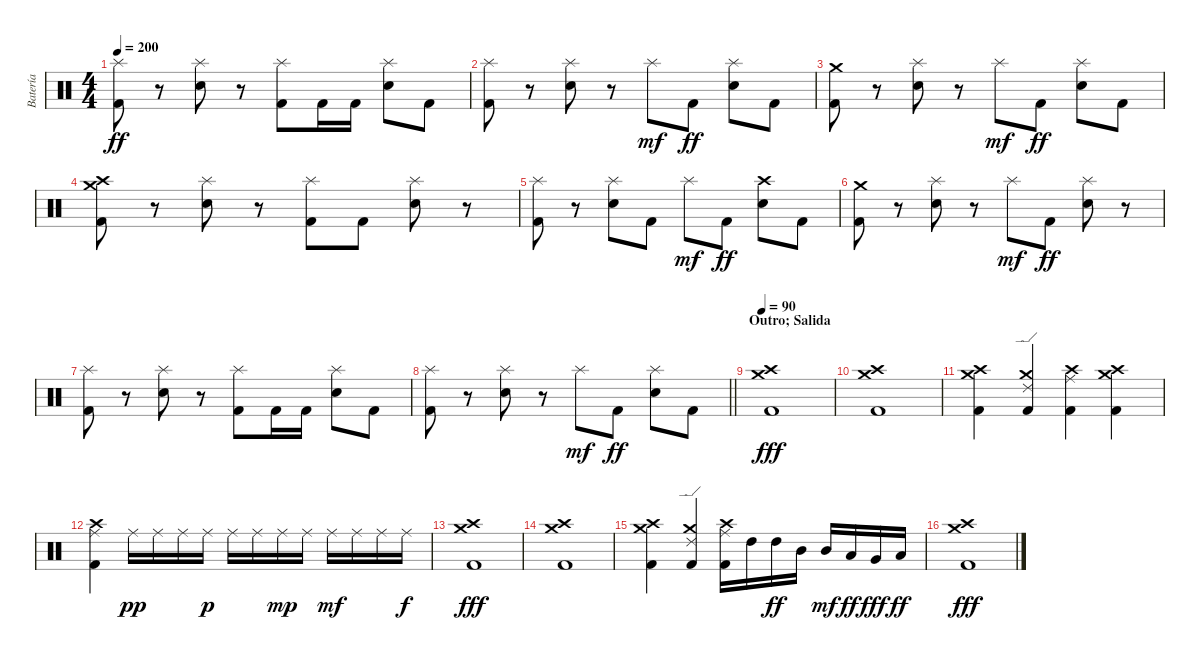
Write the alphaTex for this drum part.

\track ("Batería" "Batería") {instrument percussion}
\staff {score}
\articulation defaults
\ts (4 4)
\tempo 200
\clef neutral
\ks c
("Splash (hit)" "Kick (hit) 2").8{dy ff} r.8 ("Splash (hit)" "Electric Snare (hit)").8 r.8 ("Splash (hit)" "Kick (hit) 2").8 "Kick (hit) 2".16 "Kick (hit) 2".16 ("Splash (hit)" "Electric Snare (hit)").8 "Kick (hit) 2".8 |
("Splash (hit)" "Kick (hit) 2").8 r.8 ("Splash (hit)" "Electric Snare (hit)").8 r.8 "Splash (hit)".8{dy mf} "Kick (hit) 2".8{dy ff} ("Splash (hit)" "Electric Snare (hit)").8 "Kick (hit) 2".8 |
("Crash medium (hit)" "Kick (hit) 2").8 r.8 ("Splash (hit)" "Electric Snare (hit)").8 r.8 "Splash (hit)".8{dy mf} "Kick (hit) 2".8{dy ff} ("Splash (hit)" "Electric Snare (hit)").8 "Kick (hit) 2".8 |
("Crash high (hit)" "Crash medium (hit)" "Kick (hit) 2").8 r.8 ("Splash (hit)" "Electric Snare (hit)").8 r.8 ("Splash (hit)" "Kick (hit) 2").8 "Kick (hit) 2".8 ("Splash (hit)" "Electric Snare (hit)").8 r.8 |
("Splash (hit)" "Kick (hit) 2").8 r.8 ("Splash (hit)" "Electric Snare (hit)").8 "Kick (hit) 2".8 "Splash (hit)".8{dy mf} "Kick (hit) 2".8{dy ff} ("Crash high (hit)" "Electric Snare (hit)").8 "Kick (hit) 2".8 |
("Crash medium (hit)" "Kick (hit) 2").8 r.8 ("Splash (hit)" "Electric Snare (hit)").8 r.8 "Splash (hit)".8{dy mf} "Kick (hit) 2".8{dy ff} ("Splash (hit)" "Electric Snare (hit)").8 r.8 |
("Splash (hit)" "Kick (hit) 2").8 r.8 ("Splash (hit)" "Electric Snare (hit)").8 r.8 ("Splash (hit)" "Kick (hit) 2").8 "Kick (hit) 2".16 "Kick (hit) 2".16 ("Splash (hit)" "Electric Snare (hit)").8 "Kick (hit) 2".8 |
\barLineRight lightlight
("Splash (hit)" "Kick (hit) 2").8 r.8 ("Splash (hit)" "Electric Snare (hit)").8 r.8 "Splash (hit)".8{dy mf} "Kick (hit) 2".8{dy ff} ("Splash (hit)" "Electric Snare (hit)").8 "Kick (hit) 2".8 |
\section ("" "Outro; Salida")
\tempo 90
("Crash medium (hit)" "Crash high (hit)" "Kick (hit) 2").1{dy fff} |
("Crash medium (hit)" "Crash high (hit)" "Kick (hit) 2").1 |
("Crash medium (hit)" "Crash high (hit)" "Kick (hit) 2").4 ("Crash medium (hit)" "Ride (edge) 2" "Kick (hit) 2").4 ("Ride (middle)" "Crash high (hit)" "Kick (hit) 2").4 ("Crash medium (hit)" "Crash high (hit)" "Kick (hit) 2").4 |
("Ride (middle)" "Crash high (hit)" "Kick (hit) 2").4 "Ride (middle)".16{dy pp} "Ride (middle)".16 "Ride (middle)".16 "Ride (middle)".16{dy p} "Ride (middle)".16 "Ride (middle)".16 "Ride (middle)".16{dy mp} "Ride (middle)".16 "Ride (middle)".16{dy mf} "Ride (middle)".16 "Ride (middle)".16 "Ride (middle)".16{dy f} |
("Crash medium (hit)" "Crash high (hit)" "Kick (hit) 2").1{dy fff} |
("Crash medium (hit)" "Crash high (hit)" "Kick (hit) 2").1 |
("Crash medium (hit)" "Crash high (hit)" "Kick (hit) 2").4 ("Crash medium (hit)" "Ride (edge) 2" "Kick (hit) 2").4 ("Ride (middle)" "Crash high (hit)" "Kick (hit) 2").16 "High Tom (hit)".16 "High Tom (hit)".16{dy ff} "Mid Tom (hit)".16 "Mid Tom (hit)".16{dy mf} "Low Tom (hit)".16{dy ff} "Very Low Tom (hit)".16{dy fff} "Low Floor Tom (hit)".16{dy ff} |
("Crash medium (hit)" "Crash high (hit)" "Kick (hit) 2").1{dy fff}
